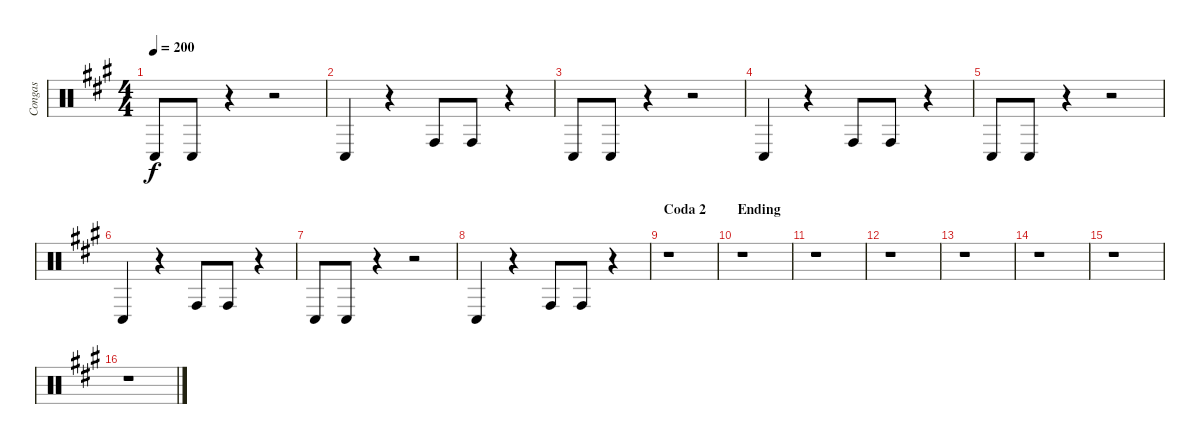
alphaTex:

\track ("Congas" "Congas") {instrument percussion}
\staff {score}
\articulation defaults
\ts (4 4)
\tempo 200
\clef neutral
\ks a "Conga low (hit)".8{dy f} "Conga low (hit)".8
r.4 r.2 |
"Conga low (hit)".4 r.4 "Conga high (hit)".8 "Conga high (hit)".8 r.4 |
"Conga low (hit)".8 "Conga low (hit)".8 r.4 r.2 |
"Conga low (hit)".4 r.4 "Conga high (hit)".8 "Conga high (hit)".8 r.4 |
"Conga low (hit)".8 "Conga low (hit)".8 r.4 r.2 |
"Conga low (hit)".4 r.4 "Conga high (hit)".8 "Conga high (hit)".8 r.4 |
"Conga low (hit)".8 "Conga low (hit)".8 r.4 r.2 |
"Conga low (hit)".4 r.4 "Conga high (hit)".8 "Conga high (hit)".8 r.4 |
\section ("" "Coda 2")
r.1 |
\section ("" "Ending")
r.1 |
r.1 |
r.1 |
r.1 |
r.1 |
r.1 |
r.1
